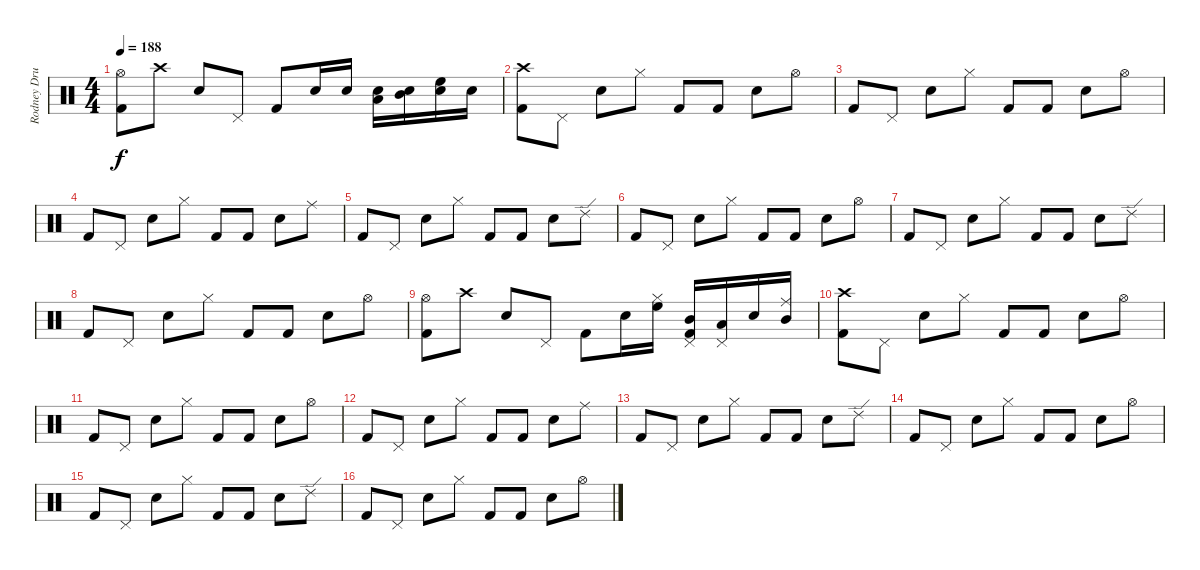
\track ("Rodney Drums" "Rodney Dru") {instrument percussion}
\staff {score}
\articulation defaults
\ts (4 4)
\tempo 188
\clef neutral
\ks c
("Hi-Hat (open)" "Kick (hit) 2").8{dy f} "Crash high (hit)".8 "Electric Snare (hit)".8 "Pedal Hi-Hat (hit)".8 "Kick (hit) 2".8 "Electric Snare (hit)".16 "Electric Snare (hit)".16 ("Electric Snare (hit)" "Low Tom (hit)").16 ("Mid Tom (hit)" "Electric Snare (hit)").16 ("High Floor Tom (hit)" "Electric Snare (hit)").16 "Electric Snare (hit)".16 |
("Crash high (hit)" "Kick (hit) 2").8 "Pedal Hi-Hat (hit)".8 "Electric Snare (hit)".8 "Hi-Hat (closed)".8 "Kick (hit) 2".8 "Kick (hit) 2".8 "Electric Snare (hit)".8 "Hi-Hat (open)".8 |
"Kick (hit) 2".8 "Pedal Hi-Hat (hit)".8 "Electric Snare (hit)".8 "Hi-Hat (closed)".8 "Kick (hit) 2".8 "Kick (hit) 2".8 "Electric Snare (hit)".8 "Hi-Hat (open)".8 |
"Kick (hit) 2".8 "Pedal Hi-Hat (hit)".8 "Electric Snare (hit)".8 "Hi-Hat (closed)".8 "Kick (hit) 2".8 "Kick (hit) 2".8 "Electric Snare (hit)".8 "Ride (middle)".8 |
"Kick (hit) 2".8 "Pedal Hi-Hat (hit)".8 "Electric Snare (hit)".8 "Hi-Hat (closed)".8 "Kick (hit) 2".8 "Kick (hit) 2".8 "Electric Snare (hit)".8 "Ride (edge) 2".8 |
"Kick (hit) 2".8 "Pedal Hi-Hat (hit)".8 "Electric Snare (hit)".8 "Hi-Hat (closed)".8 "Kick (hit) 2".8 "Kick (hit) 2".8 "Electric Snare (hit)".8 "Hi-Hat (open)".8 |
"Kick (hit) 2".8 "Pedal Hi-Hat (hit)".8 "Electric Snare (hit)".8 "Hi-Hat (closed)".8 "Kick (hit) 2".8 "Kick (hit) 2".8 "Electric Snare (hit)".8 "Ride (edge) 2".8 |
"Kick (hit) 2".8 "Pedal Hi-Hat (hit)".8 "Electric Snare (hit)".8 "Hi-Hat (closed)".8 "Kick (hit) 2".8 "Kick (hit) 2".8 "Electric Snare (hit)".8 "Hi-Hat (open)".8 |
("Hi-Hat (open)" "Kick (hit) 2").8 "Crash high (hit)".8 "Electric Snare (hit)".8 "Pedal Hi-Hat (hit)".8 "Kick (hit) 2".8 "Electric Snare (hit)".16 ("Hi-Hat (closed)" "High Floor Tom (hit)").16 ("Pedal Hi-Hat (hit)" "Mid Tom (hit)" "Kick (hit) 2").16 ("Pedal Hi-Hat (hit)" "Low Tom (hit)").16 "Electric Snare (hit)".16 ("Ride (middle)" "Mid Tom (hit)").16 |
("Crash high (hit)" "Kick (hit) 2").8 "Pedal Hi-Hat (hit)".8 "Electric Snare (hit)".8 "Hi-Hat (closed)".8 "Kick (hit) 2".8 "Kick (hit) 2".8 "Electric Snare (hit)".8 "Hi-Hat (open)".8 |
"Kick (hit) 2".8 "Pedal Hi-Hat (hit)".8 "Electric Snare (hit)".8 "Hi-Hat (closed)".8 "Kick (hit) 2".8 "Kick (hit) 2".8 "Electric Snare (hit)".8 "Hi-Hat (open)".8 |
"Kick (hit) 2".8 "Pedal Hi-Hat (hit)".8 "Electric Snare (hit)".8 "Hi-Hat (closed)".8 "Kick (hit) 2".8 "Kick (hit) 2".8 "Electric Snare (hit)".8 "Ride (middle)".8 |
"Kick (hit) 2".8 "Pedal Hi-Hat (hit)".8 "Electric Snare (hit)".8 "Hi-Hat (closed)".8 "Kick (hit) 2".8 "Kick (hit) 2".8 "Electric Snare (hit)".8 "Ride (edge) 2".8 |
"Kick (hit) 2".8 "Pedal Hi-Hat (hit)".8 "Electric Snare (hit)".8 "Hi-Hat (closed)".8 "Kick (hit) 2".8 "Kick (hit) 2".8 "Electric Snare (hit)".8 "Hi-Hat (open)".8 |
"Kick (hit) 2".8 "Pedal Hi-Hat (hit)".8 "Electric Snare (hit)".8 "Hi-Hat (closed)".8 "Kick (hit) 2".8 "Kick (hit) 2".8 "Electric Snare (hit)".8 "Ride (edge) 2".8 |
"Kick (hit) 2".8 "Pedal Hi-Hat (hit)".8 "Electric Snare (hit)".8 "Hi-Hat (closed)".8 "Kick (hit) 2".8 "Kick (hit) 2".8 "Electric Snare (hit)".8 "Hi-Hat (open)".8
